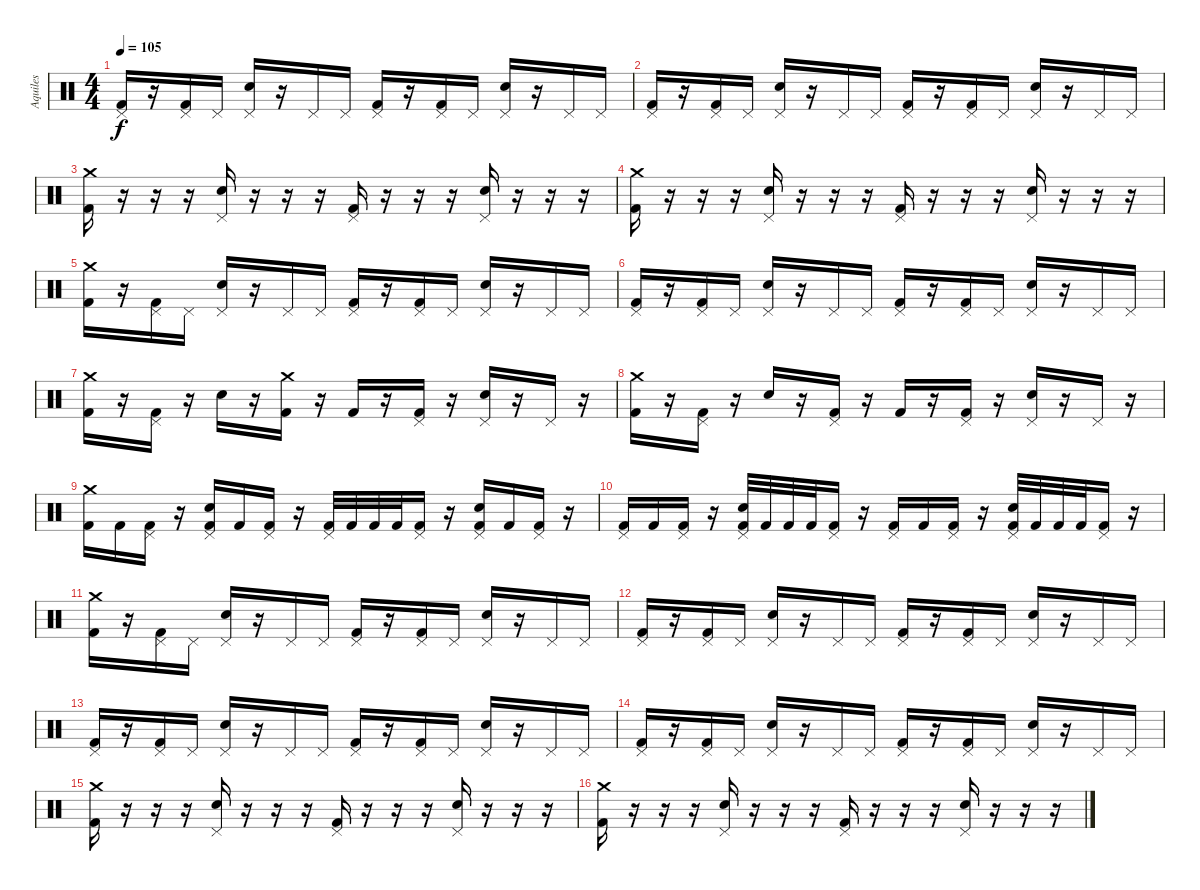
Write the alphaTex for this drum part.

\track ("Aquiles" "Aquiles") {instrument percussion}
\staff {score}
\articulation defaults
\ts (4 4)
\tempo 105
\clef neutral
\ks c
("Kick (hit) 2" "Pedal Hi-Hat (hit)").16{dy f} r.16 ("Kick (hit) 2" "Pedal Hi-Hat (hit)").16 "Pedal Hi-Hat (hit)".16 ("Pedal Hi-Hat (hit)" "Electric Snare (hit)").16 r.16 "Pedal Hi-Hat (hit)".16 "Pedal Hi-Hat (hit)".16 ("Kick (hit) 2" "Pedal Hi-Hat (hit)").16 r.16 ("Kick (hit) 2" "Pedal Hi-Hat (hit)").16 "Pedal Hi-Hat (hit)".16 ("Pedal Hi-Hat (hit)" "Electric Snare (hit)").16 r.16 "Pedal Hi-Hat (hit)".16 "Pedal Hi-Hat (hit)".16 |
("Kick (hit) 2" "Pedal Hi-Hat (hit)").16 r.16 ("Kick (hit) 2" "Pedal Hi-Hat (hit)").16 "Pedal Hi-Hat (hit)".16 ("Pedal Hi-Hat (hit)" "Electric Snare (hit)").16 r.16 "Pedal Hi-Hat (hit)".16 "Pedal Hi-Hat (hit)".16 ("Kick (hit) 2" "Pedal Hi-Hat (hit)").16 r.16 ("Kick (hit) 2" "Pedal Hi-Hat (hit)").16 "Pedal Hi-Hat (hit)".16 ("Pedal Hi-Hat (hit)" "Electric Snare (hit)").16 r.16 "Pedal Hi-Hat (hit)".16 "Pedal Hi-Hat (hit)".16 |
("Kick (hit) 2" "Crash medium (hit)").16 r.16 r.16 r.16 ("Pedal Hi-Hat (hit)" "Electric Snare (hit)").16 r.16 r.16 r.16 ("Kick (hit) 2" "Pedal Hi-Hat (hit)").16 r.16 r.16 r.16 ("Pedal Hi-Hat (hit)" "Electric Snare (hit)").16 r.16 r.16 r.16 |
("Kick (hit) 2" "Crash medium (hit)").16 r.16 r.16 r.16 ("Pedal Hi-Hat (hit)" "Electric Snare (hit)").16 r.16 r.16 r.16 ("Kick (hit) 2" "Pedal Hi-Hat (hit)").16 r.16 r.16 r.16 ("Pedal Hi-Hat (hit)" "Electric Snare (hit)").16 r.16 r.16 r.16 |
("Kick (hit) 2" "Crash medium (hit)").16 r.16 ("Kick (hit) 2" "Pedal Hi-Hat (hit)").16 "Pedal Hi-Hat (hit)".16 ("Pedal Hi-Hat (hit)" "Electric Snare (hit)").16 r.16 "Pedal Hi-Hat (hit)".16 "Pedal Hi-Hat (hit)".16 ("Kick (hit) 2" "Pedal Hi-Hat (hit)").16 r.16 ("Kick (hit) 2" "Pedal Hi-Hat (hit)").16 "Pedal Hi-Hat (hit)".16 ("Pedal Hi-Hat (hit)" "Electric Snare (hit)").16 r.16 "Pedal Hi-Hat (hit)".16 "Pedal Hi-Hat (hit)".16 |
("Kick (hit) 2" "Pedal Hi-Hat (hit)").16 r.16 ("Kick (hit) 2" "Pedal Hi-Hat (hit)").16 "Pedal Hi-Hat (hit)".16 ("Pedal Hi-Hat (hit)" "Electric Snare (hit)").16 r.16 "Pedal Hi-Hat (hit)".16 "Pedal Hi-Hat (hit)".16 ("Kick (hit) 2" "Pedal Hi-Hat (hit)").16 r.16 ("Kick (hit) 2" "Pedal Hi-Hat (hit)").16 "Pedal Hi-Hat (hit)".16 ("Pedal Hi-Hat (hit)" "Electric Snare (hit)").16 r.16 "Pedal Hi-Hat (hit)".16 "Pedal Hi-Hat (hit)".16 |
("Kick (hit) 2" "Crash medium (hit)").16 r.16 ("Kick (hit) 2" "Pedal Hi-Hat (hit)").16 r.16 "Electric Snare (hit)".16 r.16 ("Kick (hit) 2" "Crash medium (hit)").16 r.16 "Kick (hit) 2".16 r.16 ("Kick (hit) 2" "Pedal Hi-Hat (hit)").16 r.16 ("Pedal Hi-Hat (hit)" "Electric Snare (hit)").16 r.16 "Pedal Hi-Hat (hit)".16 r.16 |
("Kick (hit) 2" "Crash medium (hit)").16 r.16 ("Kick (hit) 2" "Pedal Hi-Hat (hit)").16 r.16 "Electric Snare (hit)".16 r.16 ("Kick (hit) 2" "Pedal Hi-Hat (hit)").16 r.16 "Kick (hit) 2".16 r.16 ("Kick (hit) 2" "Pedal Hi-Hat (hit)").16 r.16 ("Pedal Hi-Hat (hit)" "Electric Snare (hit)").16 r.16 "Pedal Hi-Hat (hit)".16 r.16 |
("Kick (hit) 2" "Crash medium (hit)").16 "Kick (hit) 2".16 ("Kick (hit) 2" "Pedal Hi-Hat (hit)").16 r.16 ("Kick (hit) 2" "Pedal Hi-Hat (hit)" "Electric Snare (hit)").16 "Kick (hit) 2".16 ("Kick (hit) 2" "Pedal Hi-Hat (hit)").16 r.16 ("Kick (hit) 2" "Pedal Hi-Hat (hit)").32 "Kick (hit) 2".32 "Kick (hit) 2".32 "Kick (hit) 2".32 ("Kick (hit) 2" "Pedal Hi-Hat (hit)").16 r.16 ("Kick (hit) 2" "Pedal Hi-Hat (hit)" "Electric Snare (hit)").16 "Kick (hit) 2".16 ("Kick (hit) 2" "Pedal Hi-Hat (hit)").16 r.16 |
("Kick (hit) 2" "Pedal Hi-Hat (hit)").16 "Kick (hit) 2".16 ("Kick (hit) 2" "Pedal Hi-Hat (hit)").16 r.16 ("Kick (hit) 2" "Pedal Hi-Hat (hit)" "Electric Snare (hit)").32 "Kick (hit) 2".32 "Kick (hit) 2".32 "Kick (hit) 2".32 ("Kick (hit) 2" "Pedal Hi-Hat (hit)").16 r.16 ("Kick (hit) 2" "Pedal Hi-Hat (hit)").16 "Kick (hit) 2".16 ("Kick (hit) 2" "Pedal Hi-Hat (hit)").16 r.16 ("Kick (hit) 2" "Pedal Hi-Hat (hit)" "Electric Snare (hit)").32 "Kick (hit) 2".32 "Kick (hit) 2".32 "Kick (hit) 2".32 ("Kick (hit) 2" "Pedal Hi-Hat (hit)").16 r.16 |
("Kick (hit) 2" "Crash medium (hit)").16 r.16 ("Kick (hit) 2" "Pedal Hi-Hat (hit)").16 "Pedal Hi-Hat (hit)".16 ("Pedal Hi-Hat (hit)" "Electric Snare (hit)").16 r.16 "Pedal Hi-Hat (hit)".16 "Pedal Hi-Hat (hit)".16 ("Kick (hit) 2" "Pedal Hi-Hat (hit)").16 r.16 ("Kick (hit) 2" "Pedal Hi-Hat (hit)").16 "Pedal Hi-Hat (hit)".16 ("Pedal Hi-Hat (hit)" "Electric Snare (hit)").16 r.16 "Pedal Hi-Hat (hit)".16 "Pedal Hi-Hat (hit)".16 |
("Kick (hit) 2" "Pedal Hi-Hat (hit)").16 r.16 ("Kick (hit) 2" "Pedal Hi-Hat (hit)").16 "Pedal Hi-Hat (hit)".16 ("Pedal Hi-Hat (hit)" "Electric Snare (hit)").16 r.16 "Pedal Hi-Hat (hit)".16 "Pedal Hi-Hat (hit)".16 ("Kick (hit) 2" "Pedal Hi-Hat (hit)").16 r.16 ("Kick (hit) 2" "Pedal Hi-Hat (hit)").16 "Pedal Hi-Hat (hit)".16 ("Pedal Hi-Hat (hit)" "Electric Snare (hit)").16 r.16 "Pedal Hi-Hat (hit)".16 "Pedal Hi-Hat (hit)".16 |
("Kick (hit) 2" "Pedal Hi-Hat (hit)").16 r.16 ("Kick (hit) 2" "Pedal Hi-Hat (hit)").16 "Pedal Hi-Hat (hit)".16 ("Pedal Hi-Hat (hit)" "Electric Snare (hit)").16 r.16 "Pedal Hi-Hat (hit)".16 "Pedal Hi-Hat (hit)".16 ("Kick (hit) 2" "Pedal Hi-Hat (hit)").16 r.16 ("Kick (hit) 2" "Pedal Hi-Hat (hit)").16 "Pedal Hi-Hat (hit)".16 ("Pedal Hi-Hat (hit)" "Electric Snare (hit)").16 r.16 "Pedal Hi-Hat (hit)".16 "Pedal Hi-Hat (hit)".16 |
("Kick (hit) 2" "Pedal Hi-Hat (hit)").16 r.16 ("Kick (hit) 2" "Pedal Hi-Hat (hit)").16 "Pedal Hi-Hat (hit)".16 ("Pedal Hi-Hat (hit)" "Electric Snare (hit)").16 r.16 "Pedal Hi-Hat (hit)".16 "Pedal Hi-Hat (hit)".16 ("Kick (hit) 2" "Pedal Hi-Hat (hit)").16 r.16 ("Kick (hit) 2" "Pedal Hi-Hat (hit)").16 "Pedal Hi-Hat (hit)".16 ("Pedal Hi-Hat (hit)" "Electric Snare (hit)").16 r.16 "Pedal Hi-Hat (hit)".16 "Pedal Hi-Hat (hit)".16 |
("Kick (hit) 2" "Crash medium (hit)").16 r.16 r.16 r.16 ("Pedal Hi-Hat (hit)" "Electric Snare (hit)").16 r.16 r.16 r.16 ("Kick (hit) 2" "Pedal Hi-Hat (hit)").16 r.16 r.16 r.16 ("Pedal Hi-Hat (hit)" "Electric Snare (hit)").16 r.16 r.16 r.16 |
("Kick (hit) 2" "Crash medium (hit)").16 r.16 r.16 r.16 ("Pedal Hi-Hat (hit)" "Electric Snare (hit)").16 r.16 r.16 r.16 ("Kick (hit) 2" "Pedal Hi-Hat (hit)").16 r.16 r.16 r.16 ("Pedal Hi-Hat (hit)" "Electric Snare (hit)").16 r.16 r.16 r.16
